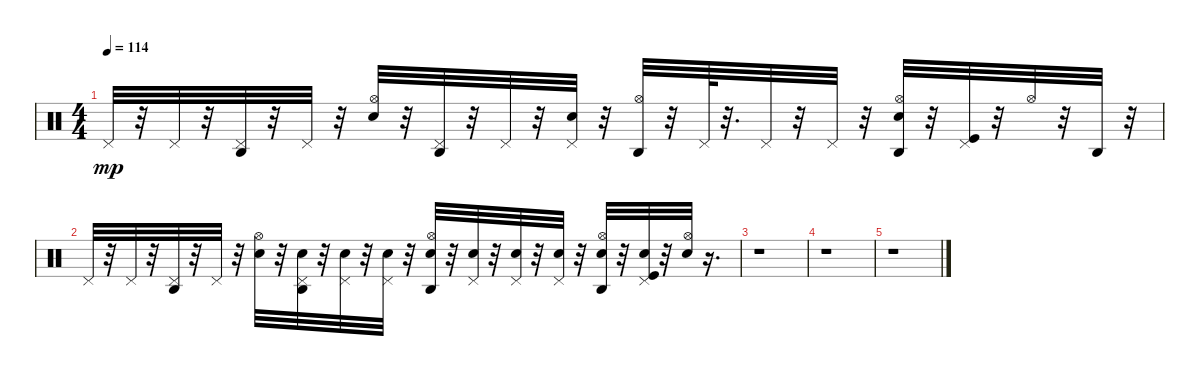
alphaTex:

\track "" {instrument percussion}
\staff {score}
\articulation defaults
\ts (4 4)
\tempo 114
\clef neutral
\ks c "Pedal Hi-Hat (hit)".32{dy mp}
r.32 "Pedal Hi-Hat (hit)".32 r.32 ("Agogo high (hit)" "Pedal Hi-Hat (hit)").32 r.32 "Pedal Hi-Hat (hit)".32 r.32 ("Hi-Hat (open)" "Electric Snare (hit)").32 r.32 ("Pedal Hi-Hat (hit)" "Agogo high (hit)").32 r.32 "Pedal Hi-Hat (hit)".32 r.32 ("Pedal Hi-Hat (hit)" "Snare (hit) 2").32 r.32 ("Hi-Hat (open)" "Agogo high (hit)").32 r.32 "Pedal Hi-Hat (hit)".64 r.32{d} "Pedal Hi-Hat (hit)".32 r.32 "Pedal Hi-Hat (hit)".32 r.32 ("Hi-Hat (open)" "Agogo high (hit)" "Electric Snare (hit)").32 r.32 ("Pedal Hi-Hat (hit)" "Kick (hit)").32 r.32 "Hi-Hat (open)".32 r.32 "Agogo high (hit)".32 r.32 |
"Pedal Hi-Hat (hit)".32 r.32 "Pedal Hi-Hat (hit)".32 r.32 ("Agogo high (hit)" "Pedal Hi-Hat (hit)").32 r.32 "Pedal Hi-Hat (hit)".32 r.32 ("Hi-Hat (open)" "Electric Snare (hit)").32 r.32 ("Pedal Hi-Hat (hit)" "Electric Snare (hit)" "Agogo high (hit)").32 r.32 ("Electric Snare (hit)" "Pedal Hi-Hat (hit)").32 r.32 ("Electric Snare (hit)" "Pedal Hi-Hat (hit)").32 r.32 ("Electric Snare (hit)" "Agogo high (hit)" "Hi-Hat (open)").32 r.32 ("Pedal Hi-Hat (hit)" "Electric Snare (hit)").32 r.32 ("Electric Snare (hit)" "Pedal Hi-Hat (hit)").32 r.32 ("Electric Snare (hit)" "Pedal Hi-Hat (hit)").32 r.32 ("Hi-Hat (open)" "Electric Snare (hit)" "Agogo high (hit)").32 r.32 ("Pedal Hi-Hat (hit)" "Electric Snare (hit)" "Kick (hit)").32 r.32 ("Electric Snare (hit)" "Hi-Hat (open)").32 r.16{d} |
r.1 |
r.1 |
r.1
